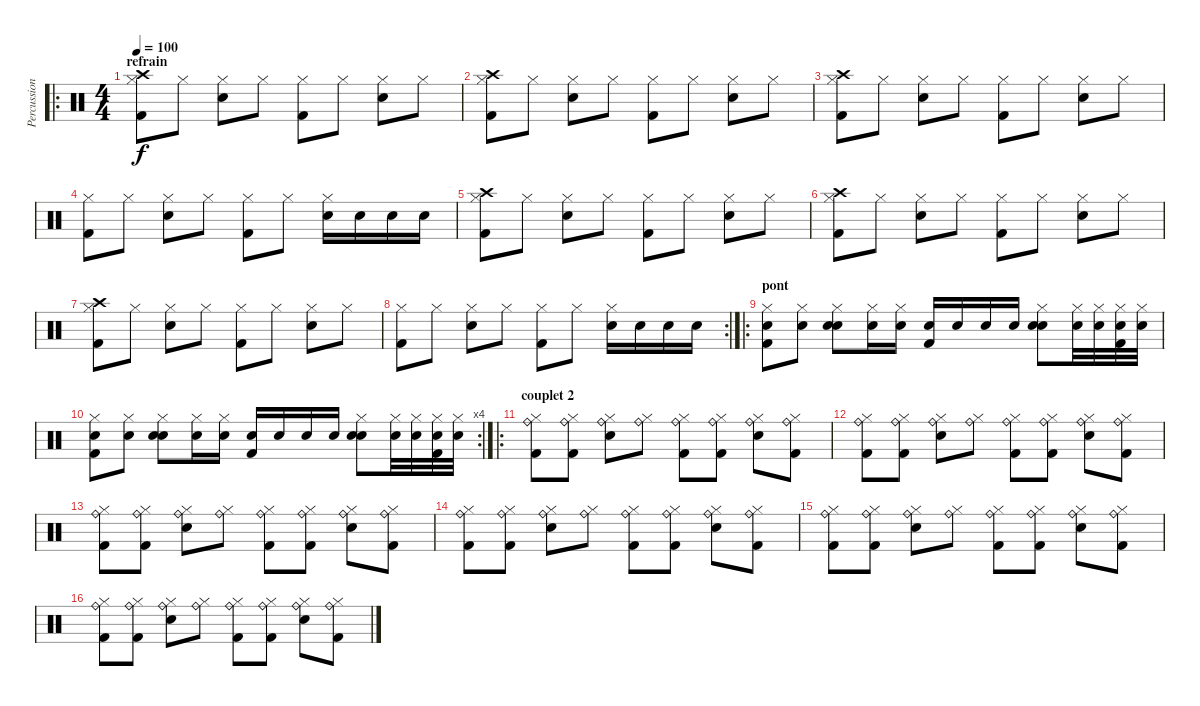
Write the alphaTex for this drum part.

\track ("Percussions" "Percussion") {instrument percussion}
\staff {score}
\articulation defaults
\ro
\ts (4 4)
\section ("" "refrain")
\tempo 100
\clef neutral
\ks c
("Hi-Hat (closed)" "Kick (hit) 2" "Crash high (hit)").8{dy f} "Hi-Hat (closed)".8 ("Hi-Hat (closed)" "Electric Snare (hit)").8 "Hi-Hat (closed)".8 ("Hi-Hat (closed)" "Kick (hit) 2").8 "Hi-Hat (closed)".8 ("Hi-Hat (closed)" "Electric Snare (hit)").8 "Hi-Hat (closed)".8 |
("Hi-Hat (closed)" "Kick (hit) 2" "Crash high (hit)").8 "Hi-Hat (closed)".8 ("Hi-Hat (closed)" "Electric Snare (hit)").8 "Hi-Hat (closed)".8 ("Hi-Hat (closed)" "Kick (hit) 2").8 "Hi-Hat (closed)".8 ("Hi-Hat (closed)" "Electric Snare (hit)").8 "Hi-Hat (closed)".8 |
("Hi-Hat (closed)" "Kick (hit) 2" "Crash high (hit)").8 "Hi-Hat (closed)".8 ("Hi-Hat (closed)" "Electric Snare (hit)").8 "Hi-Hat (closed)".8 ("Hi-Hat (closed)" "Kick (hit) 2").8 "Hi-Hat (closed)".8 ("Hi-Hat (closed)" "Electric Snare (hit)").8 "Hi-Hat (closed)".8 |
("Hi-Hat (closed)" "Kick (hit) 2").8 "Hi-Hat (closed)".8 ("Hi-Hat (closed)" "Electric Snare (hit)").8 "Hi-Hat (closed)".8 ("Hi-Hat (closed)" "Kick (hit) 2").8 "Hi-Hat (closed)".8 ("Hi-Hat (closed)" "Electric Snare (hit)").16 "Electric Snare (hit)".16 "Electric Snare (hit)".16 "Electric Snare (hit)".16 |
("Hi-Hat (closed)" "Kick (hit) 2" "Crash high (hit)").8 "Hi-Hat (closed)".8 ("Hi-Hat (closed)" "Electric Snare (hit)").8 "Hi-Hat (closed)".8 ("Hi-Hat (closed)" "Kick (hit) 2").8 "Hi-Hat (closed)".8 ("Hi-Hat (closed)" "Electric Snare (hit)").8 "Hi-Hat (closed)".8 |
("Hi-Hat (closed)" "Kick (hit) 2" "Crash high (hit)").8 "Hi-Hat (closed)".8 ("Hi-Hat (closed)" "Electric Snare (hit)").8 "Hi-Hat (closed)".8 ("Hi-Hat (closed)" "Kick (hit) 2").8 "Hi-Hat (closed)".8 ("Hi-Hat (closed)" "Electric Snare (hit)").8 "Hi-Hat (closed)".8 |
("Hi-Hat (closed)" "Kick (hit) 2" "Crash high (hit)").8 "Hi-Hat (closed)".8 ("Hi-Hat (closed)" "Electric Snare (hit)").8 "Hi-Hat (closed)".8 ("Hi-Hat (closed)" "Kick (hit) 2").8 "Hi-Hat (closed)".8 ("Hi-Hat (closed)" "Electric Snare (hit)").8 "Hi-Hat (closed)".8 |
\rc 2
("Hi-Hat (closed)" "Kick (hit) 2").8 "Hi-Hat (closed)".8 ("Hi-Hat (closed)" "Electric Snare (hit)").8 "Hi-Hat (closed)".8 ("Hi-Hat (closed)" "Kick (hit) 2").8 "Hi-Hat (closed)".8 ("Hi-Hat (closed)" "Electric Snare (hit)").16 "Electric Snare (hit)".16 "Electric Snare (hit)".16 "Electric Snare (hit)".16 |
\ro
\section ("" "pont")
("Kick (hit) 2" "Electric Snare (hit)" "Hi-Hat (closed)").8 ("Electric Snare (hit)" "Hi-Hat (closed)").8 ("Hand Clap (hit)" "Electric Snare (hit)" "Hi-Hat (closed)").8 ("Electric Snare (hit)" "Hi-Hat (closed)").16 ("Electric Snare (hit)" "Hi-Hat (closed)").16 ("Kick (hit) 2" "Electric Snare (hit)").16 "Electric Snare (hit)".16 "Electric Snare (hit)".16 "Electric Snare (hit)".16 ("Hand Clap (hit)" "Electric Snare (hit)" "Hi-Hat (closed)").8 ("Electric Snare (hit)" "Hi-Hat (closed)").32 ("Electric Snare (hit)" "Hi-Hat (closed)").32 ("Kick (hit) 2" "Electric Snare (hit)" "Hi-Hat (closed)").32 ("Electric Snare (hit)" "Hi-Hat (closed)").32 |
\rc 4
("Kick (hit) 2" "Electric Snare (hit)" "Hi-Hat (closed)").8 ("Electric Snare (hit)" "Hi-Hat (closed)").8 ("Hand Clap (hit)" "Electric Snare (hit)" "Hi-Hat (closed)").8 ("Electric Snare (hit)" "Hi-Hat (closed)").16 ("Electric Snare (hit)" "Hi-Hat (closed)").16 ("Kick (hit) 2" "Electric Snare (hit)").16 "Electric Snare (hit)".16 "Electric Snare (hit)".16 "Electric Snare (hit)".16 ("Hand Clap (hit)" "Electric Snare (hit)" "Hi-Hat (closed)").8 ("Electric Snare (hit)" "Hi-Hat (closed)").32 ("Electric Snare (hit)" "Hi-Hat (closed)").32 ("Kick (hit) 2" "Electric Snare (hit)" "Hi-Hat (closed)").32 ("Electric Snare (hit)" "Hi-Hat (closed)").32 |
\ro
\section ("" "couplet 2")
("Kick (hit) 2" "Hi-Hat (closed)" "Ride (bell)").8 ("Kick (hit) 2" "Hi-Hat (closed)" "Ride (bell)").8 ("Snare (hit) 2" "Hi-Hat (closed)" "Ride (bell)").8 ("Hi-Hat (closed)" "Ride (bell)").8 ("Kick (hit) 2" "Hi-Hat (closed)" "Ride (bell)").8 ("Kick (hit) 2" "Hi-Hat (closed)" "Ride (bell)").8 ("Snare (hit) 2" "Hi-Hat (closed)" "Ride (bell)").8 ("Kick (hit) 2" "Hi-Hat (closed)" "Ride (bell)").8 |
("Kick (hit) 2" "Hi-Hat (closed)" "Ride (bell)").8 ("Kick (hit) 2" "Hi-Hat (closed)" "Ride (bell)").8 ("Snare (hit) 2" "Hi-Hat (closed)" "Ride (bell)").8 ("Hi-Hat (closed)" "Ride (bell)").8 ("Kick (hit) 2" "Hi-Hat (closed)" "Ride (bell)").8 ("Kick (hit) 2" "Hi-Hat (closed)" "Ride (bell)").8 ("Snare (hit) 2" "Hi-Hat (closed)" "Ride (bell)").8 ("Kick (hit) 2" "Hi-Hat (closed)" "Ride (bell)").8 |
("Kick (hit) 2" "Hi-Hat (closed)" "Ride (bell)").8 ("Kick (hit) 2" "Hi-Hat (closed)" "Ride (bell)").8 ("Snare (hit) 2" "Hi-Hat (closed)" "Ride (bell)").8 ("Hi-Hat (closed)" "Ride (bell)").8 ("Kick (hit) 2" "Hi-Hat (closed)" "Ride (bell)").8 ("Kick (hit) 2" "Hi-Hat (closed)" "Ride (bell)").8 ("Snare (hit) 2" "Hi-Hat (closed)" "Ride (bell)").8 ("Kick (hit) 2" "Hi-Hat (closed)" "Ride (bell)").8 |
("Kick (hit) 2" "Hi-Hat (closed)" "Ride (bell)").8 ("Kick (hit) 2" "Hi-Hat (closed)" "Ride (bell)").8 ("Snare (hit) 2" "Hi-Hat (closed)" "Ride (bell)").8 ("Hi-Hat (closed)" "Ride (bell)").8 ("Kick (hit) 2" "Hi-Hat (closed)" "Ride (bell)").8 ("Kick (hit) 2" "Hi-Hat (closed)" "Ride (bell)").8 ("Snare (hit) 2" "Hi-Hat (closed)" "Ride (bell)").8 ("Kick (hit) 2" "Hi-Hat (closed)" "Ride (bell)").8 |
("Kick (hit) 2" "Hi-Hat (closed)" "Ride (bell)").8 ("Kick (hit) 2" "Hi-Hat (closed)" "Ride (bell)").8 ("Snare (hit) 2" "Hi-Hat (closed)" "Ride (bell)").8 ("Hi-Hat (closed)" "Ride (bell)").8 ("Kick (hit) 2" "Hi-Hat (closed)" "Ride (bell)").8 ("Kick (hit) 2" "Hi-Hat (closed)" "Ride (bell)").8 ("Snare (hit) 2" "Hi-Hat (closed)" "Ride (bell)").8 ("Kick (hit) 2" "Hi-Hat (closed)" "Ride (bell)").8 |
("Kick (hit) 2" "Hi-Hat (closed)" "Ride (bell)").8 ("Kick (hit) 2" "Hi-Hat (closed)" "Ride (bell)").8 ("Snare (hit) 2" "Hi-Hat (closed)" "Ride (bell)").8 ("Hi-Hat (closed)" "Ride (bell)").8 ("Kick (hit) 2" "Hi-Hat (closed)" "Ride (bell)").8 ("Kick (hit) 2" "Hi-Hat (closed)" "Ride (bell)").8 ("Snare (hit) 2" "Hi-Hat (closed)" "Ride (bell)").8 ("Kick (hit) 2" "Hi-Hat (closed)" "Ride (bell)").8
